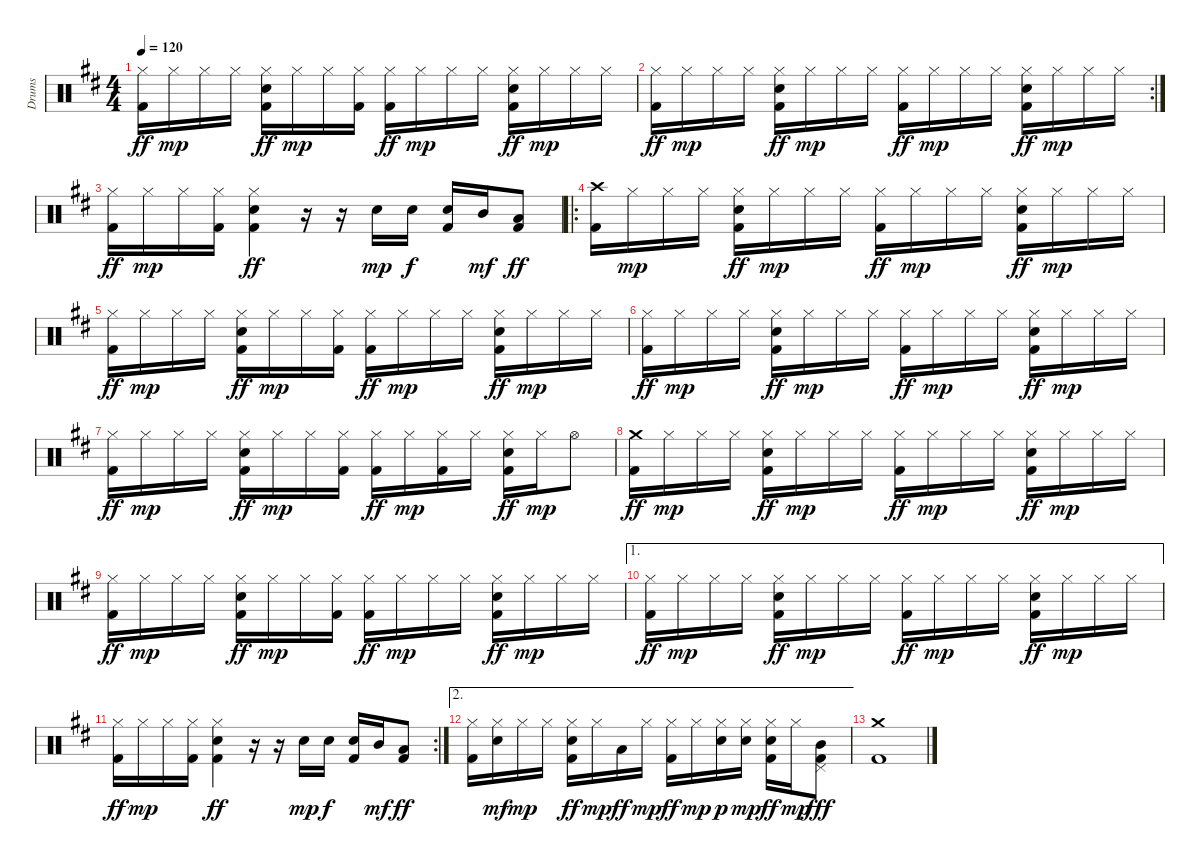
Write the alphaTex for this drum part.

\track ("Drums" "Drums") {instrument percussion}
\staff {score}
\articulation defaults
\ts (4 4)
\tempo 120
\clef neutral
\ks d
("Hi-Hat (closed)" "Kick (hit) 2").16{dy ff} "Hi-Hat (closed)".16{dy mp} "Hi-Hat (closed)".16 "Hi-Hat (closed)".16 ("Hi-Hat (closed)" "Kick (hit) 2" "Snare (hit) 2").16{dy ff} "Hi-Hat (closed)".16{dy mp} "Hi-Hat (closed)".16 ("Hi-Hat (closed)" "Kick (hit) 2").16 ("Hi-Hat (closed)" "Kick (hit) 2").16{dy ff} "Hi-Hat (closed)".16{dy mp} "Hi-Hat (closed)".16 "Hi-Hat (closed)".16 ("Hi-Hat (closed)" "Kick (hit) 2" "Snare (hit) 2").16{dy ff} "Hi-Hat (closed)".16{dy mp} "Hi-Hat (closed)".16 "Hi-Hat (closed)".16 |
\rc 2
("Hi-Hat (closed)" "Kick (hit) 2").16{dy ff} "Hi-Hat (closed)".16{dy mp} "Hi-Hat (closed)".16 "Hi-Hat (closed)".16 ("Hi-Hat (closed)" "Kick (hit) 2" "Snare (hit) 2").16{dy ff} "Hi-Hat (closed)".16{dy mp} "Hi-Hat (closed)".16 "Hi-Hat (closed)".16 ("Hi-Hat (closed)" "Kick (hit) 2").16{dy ff} "Hi-Hat (closed)".16{dy mp} "Hi-Hat (closed)".16 "Hi-Hat (closed)".16 ("Hi-Hat (closed)" "Kick (hit) 2" "Snare (hit) 2").16{dy ff} "Hi-Hat (closed)".16{dy mp} "Hi-Hat (closed)".16 "Hi-Hat (closed)".16 |
("Hi-Hat (closed)" "Kick (hit) 2").16{dy ff} "Hi-Hat (closed)".16{dy mp} "Hi-Hat (closed)".16 ("Hi-Hat (closed)" "Kick (hit) 2").16 ("Hi-Hat (closed)" "Kick (hit) 2" "Snare (hit) 2").4{dy ff} r.16 r.16 "Snare (hit) 2".16{dy mp} "Snare (hit) 2".16{dy f} ("Kick (hit) 2" "Snare (hit) 2").16 "Mid Tom (hit)".16{dy mf} ("Kick (hit) 2" "Low Tom (hit)").8{dy ff} |
\ro
("Crash high (hit)" "Kick (hit) 2").16 "Hi-Hat (closed)".16{dy mp} "Hi-Hat (closed)".16 "Hi-Hat (closed)".16 ("Hi-Hat (closed)" "Kick (hit) 2" "Snare (hit) 2").16{dy ff} "Hi-Hat (closed)".16{dy mp} "Hi-Hat (closed)".16 "Hi-Hat (closed)".16 ("Hi-Hat (closed)" "Kick (hit) 2").16{dy ff} "Hi-Hat (closed)".16{dy mp} "Hi-Hat (closed)".16 "Hi-Hat (closed)".16 ("Hi-Hat (closed)" "Kick (hit) 2" "Snare (hit) 2").16{dy ff} "Hi-Hat (closed)".16{dy mp} "Hi-Hat (closed)".16 "Hi-Hat (closed)".16 |
("Hi-Hat (closed)" "Kick (hit) 2").16{dy ff} "Hi-Hat (closed)".16{dy mp} "Hi-Hat (closed)".16 "Hi-Hat (closed)".16 ("Hi-Hat (closed)" "Kick (hit) 2" "Snare (hit) 2").16{dy ff} "Hi-Hat (closed)".16{dy mp} "Hi-Hat (closed)".16 ("Hi-Hat (closed)" "Kick (hit) 2").16 ("Hi-Hat (closed)" "Kick (hit) 2").16{dy ff} "Hi-Hat (closed)".16{dy mp} "Hi-Hat (closed)".16 "Hi-Hat (closed)".16 ("Hi-Hat (closed)" "Kick (hit) 2" "Snare (hit) 2").16{dy ff} "Hi-Hat (closed)".16{dy mp} "Hi-Hat (closed)".16 "Hi-Hat (closed)".16 |
("Hi-Hat (closed)" "Kick (hit) 2").16{dy ff} "Hi-Hat (closed)".16{dy mp} "Hi-Hat (closed)".16 "Hi-Hat (closed)".16 ("Hi-Hat (closed)" "Kick (hit) 2" "Snare (hit) 2").16{dy ff} "Hi-Hat (closed)".16{dy mp} "Hi-Hat (closed)".16 "Hi-Hat (closed)".16 ("Hi-Hat (closed)" "Kick (hit) 2").16{dy ff} "Hi-Hat (closed)".16{dy mp} "Hi-Hat (closed)".16 "Hi-Hat (closed)".16 ("Hi-Hat (closed)" "Kick (hit) 2" "Snare (hit) 2").16{dy ff} "Hi-Hat (closed)".16{dy mp} "Hi-Hat (closed)".16 "Hi-Hat (closed)".16 |
("Hi-Hat (closed)" "Kick (hit) 2").16{dy ff} "Hi-Hat (closed)".16{dy mp} "Hi-Hat (closed)".16 "Hi-Hat (closed)".16 ("Hi-Hat (closed)" "Kick (hit) 2" "Snare (hit) 2").16{dy ff} "Hi-Hat (closed)".16{dy mp} "Hi-Hat (closed)".16 ("Hi-Hat (closed)" "Kick (hit) 2").16 ("Hi-Hat (closed)" "Kick (hit) 2").16{dy ff} "Hi-Hat (closed)".16{dy mp} ("Hi-Hat (closed)" "Kick (hit) 2").16 "Hi-Hat (closed)".16 ("Hi-Hat (closed)" "Kick (hit) 2" "Snare (hit) 2").16{dy ff} "Hi-Hat (closed)".16{dy mp} "Hi-Hat (open)".8 |
("Crash medium (hit)" "Kick (hit) 2").16{dy ff} "Hi-Hat (closed)".16{dy mp} "Hi-Hat (closed)".16 "Hi-Hat (closed)".16 ("Hi-Hat (closed)" "Kick (hit) 2" "Snare (hit) 2").16{dy ff} "Hi-Hat (closed)".16{dy mp} "Hi-Hat (closed)".16 "Hi-Hat (closed)".16 ("Hi-Hat (closed)" "Kick (hit) 2").16{dy ff} "Hi-Hat (closed)".16{dy mp} "Hi-Hat (closed)".16 "Hi-Hat (closed)".16 ("Hi-Hat (closed)" "Kick (hit) 2" "Snare (hit) 2").16{dy ff} "Hi-Hat (closed)".16{dy mp} "Hi-Hat (closed)".16 "Hi-Hat (closed)".16 |
("Hi-Hat (closed)" "Kick (hit) 2").16{dy ff} "Hi-Hat (closed)".16{dy mp} "Hi-Hat (closed)".16 "Hi-Hat (closed)".16 ("Hi-Hat (closed)" "Kick (hit) 2" "Snare (hit) 2").16{dy ff} "Hi-Hat (closed)".16{dy mp} "Hi-Hat (closed)".16 ("Hi-Hat (closed)" "Kick (hit) 2").16 ("Hi-Hat (closed)" "Kick (hit) 2").16{dy ff} "Hi-Hat (closed)".16{dy mp} "Hi-Hat (closed)".16 "Hi-Hat (closed)".16 ("Hi-Hat (closed)" "Kick (hit) 2" "Snare (hit) 2").16{dy ff} "Hi-Hat (closed)".16{dy mp} "Hi-Hat (closed)".16 "Hi-Hat (closed)".16 |
\ae 1
("Hi-Hat (closed)" "Kick (hit) 2").16{dy ff} "Hi-Hat (closed)".16{dy mp} "Hi-Hat (closed)".16 "Hi-Hat (closed)".16 ("Hi-Hat (closed)" "Kick (hit) 2" "Snare (hit) 2").16{dy ff} "Hi-Hat (closed)".16{dy mp} "Hi-Hat (closed)".16 "Hi-Hat (closed)".16 ("Hi-Hat (closed)" "Kick (hit) 2").16{dy ff} "Hi-Hat (closed)".16{dy mp} "Hi-Hat (closed)".16 "Hi-Hat (closed)".16 ("Hi-Hat (closed)" "Kick (hit) 2" "Snare (hit) 2").16{dy ff} "Hi-Hat (closed)".16{dy mp} "Hi-Hat (closed)".16 "Hi-Hat (closed)".16 |
\rc 2
("Hi-Hat (closed)" "Kick (hit) 2").16{dy ff} "Hi-Hat (closed)".16{dy mp} "Hi-Hat (closed)".16 ("Hi-Hat (closed)" "Kick (hit) 2").16 ("Hi-Hat (closed)" "Kick (hit) 2" "Snare (hit) 2").4{dy ff} r.16 r.16 "Snare (hit) 2".16{dy mp} "Snare (hit) 2".16{dy f} ("Kick (hit) 2" "Snare (hit) 2").16 "Mid Tom (hit)".16{dy mf} ("Kick (hit) 2" "Low Tom (hit)").8{dy ff} |
\ae 2
("Hi-Hat (closed)" "Kick (hit) 2").16 ("Hi-Hat (closed)" "Snare (hit) 2").16{dy mf} "Hi-Hat (closed)".16{dy mp} "Hi-Hat (closed)".16 ("Hi-Hat (closed)" "Kick (hit) 2" "Snare (hit) 2").16{dy ff} "Hi-Hat (closed)".16{dy mp} "Low Tom (hit)".16{dy ff} "Hi-Hat (closed)".16{dy mp} ("Hi-Hat (closed)" "Kick (hit) 2").16{dy ff} "Hi-Hat (closed)".16{dy mp} ("Hi-Hat (closed)" "Snare (hit) 2").16{dy p} ("Hi-Hat (closed)" "Snare (hit) 2").16{dy mp} ("Hi-Hat (closed)" "Kick (hit) 2" "Snare (hit) 2").16{dy ff} "Hi-Hat (closed)".16{dy mp} ("Pedal Hi-Hat (hit)" "Kick (hit) 2" "Mid Tom (hit)").8{dy fff} |
("Crash medium (hit)" "Kick (hit) 2").1
